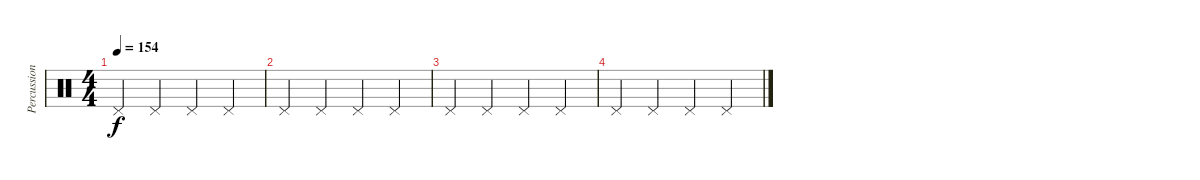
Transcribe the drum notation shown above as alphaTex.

\track ("Percussion" "Percussion") {instrument percussion}
\staff {score}
\articulation defaults
\ts (4 4)
\tempo 154
\clef neutral
\ks c "Pedal Hi-Hat (hit)".4{dy f} "Pedal Hi-Hat (hit)".4 "Pedal Hi-Hat (hit)".4 "Pedal Hi-Hat (hit)".4
|
"Pedal Hi-Hat (hit)".4 "Pedal Hi-Hat (hit)".4 "Pedal Hi-Hat (hit)".4 "Pedal Hi-Hat (hit)".4 |
"Pedal Hi-Hat (hit)".4 "Pedal Hi-Hat (hit)".4 "Pedal Hi-Hat (hit)".4 "Pedal Hi-Hat (hit)".4 |
"Pedal Hi-Hat (hit)".4 "Pedal Hi-Hat (hit)".4 "Pedal Hi-Hat (hit)".4 "Pedal Hi-Hat (hit)".4
